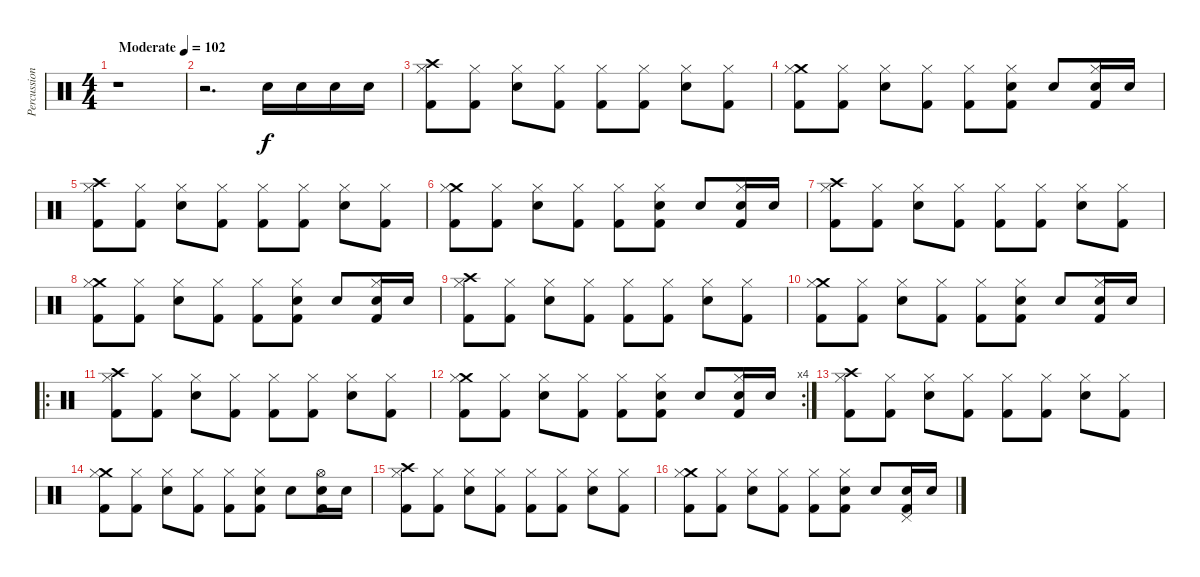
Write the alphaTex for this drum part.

\track ("Percussion" "Percussion") {instrument percussion}
\staff {score}
\articulation defaults
\ts (4 4)
\tempo (102 "Moderate")
\clef neutral
\ks c
r.1{dy f} |
r.2{d} "Snare (hit) 2".16 "Snare (hit) 2".16 "Snare (hit) 2".16 "Snare (hit) 2".16 |
("Crash high (hit)" "Hi-Hat (closed)" "Kick (hit) 2").8 ("Hi-Hat (closed)" "Kick (hit) 2").8 ("Snare (hit) 2" "Hi-Hat (closed)").8 ("Hi-Hat (closed)" "Kick (hit) 2").8 ("Hi-Hat (closed)" "Kick (hit) 2").8 ("Hi-Hat (closed)" "Kick (hit) 2").8 ("Snare (hit) 2" "Hi-Hat (closed)").8 ("Hi-Hat (closed)" "Kick (hit) 2").8 |
("Crash medium (hit)" "Hi-Hat (closed)" "Kick (hit) 2").8 ("Hi-Hat (closed)" "Kick (hit) 2").8 ("Snare (hit) 2" "Hi-Hat (closed)").8 ("Hi-Hat (closed)" "Kick (hit) 2").8 ("Hi-Hat (closed)" "Kick (hit) 2").8 ("Snare (hit) 2" "Hi-Hat (closed)" "Kick (hit) 2").8 "Snare (hit) 2".8 ("Snare (hit) 2" "Hi-Hat (closed)" "Kick (hit) 2").16 "Snare (hit) 2".16 |
("Crash high (hit)" "Hi-Hat (closed)" "Kick (hit) 2").8 ("Hi-Hat (closed)" "Kick (hit) 2").8 ("Snare (hit) 2" "Hi-Hat (closed)").8 ("Hi-Hat (closed)" "Kick (hit) 2").8 ("Hi-Hat (closed)" "Kick (hit) 2").8 ("Hi-Hat (closed)" "Kick (hit) 2").8 ("Snare (hit) 2" "Hi-Hat (closed)").8 ("Hi-Hat (closed)" "Kick (hit) 2").8 |
("Crash medium (hit)" "Hi-Hat (closed)" "Kick (hit) 2").8 ("Hi-Hat (closed)" "Kick (hit) 2").8 ("Snare (hit) 2" "Hi-Hat (closed)").8 ("Hi-Hat (closed)" "Kick (hit) 2").8 ("Hi-Hat (closed)" "Kick (hit) 2").8 ("Snare (hit) 2" "Hi-Hat (closed)" "Kick (hit) 2").8 "Snare (hit) 2".8 ("Snare (hit) 2" "Hi-Hat (closed)" "Kick (hit) 2").16 "Snare (hit) 2".16 |
("Crash high (hit)" "Hi-Hat (closed)" "Kick (hit) 2").8 ("Hi-Hat (closed)" "Kick (hit) 2").8 ("Snare (hit) 2" "Hi-Hat (closed)").8 ("Hi-Hat (closed)" "Kick (hit) 2").8 ("Hi-Hat (closed)" "Kick (hit) 2").8 ("Hi-Hat (closed)" "Kick (hit) 2").8 ("Snare (hit) 2" "Hi-Hat (closed)").8 ("Hi-Hat (closed)" "Kick (hit) 2").8 |
("Crash medium (hit)" "Hi-Hat (closed)" "Kick (hit) 2").8 ("Hi-Hat (closed)" "Kick (hit) 2").8 ("Snare (hit) 2" "Hi-Hat (closed)").8 ("Hi-Hat (closed)" "Kick (hit) 2").8 ("Hi-Hat (closed)" "Kick (hit) 2").8 ("Snare (hit) 2" "Hi-Hat (closed)" "Kick (hit) 2").8 "Snare (hit) 2".8 ("Snare (hit) 2" "Hi-Hat (closed)" "Kick (hit) 2").16 "Snare (hit) 2".16 |
("Crash high (hit)" "Hi-Hat (closed)" "Kick (hit) 2").8 ("Hi-Hat (closed)" "Kick (hit) 2").8 ("Snare (hit) 2" "Hi-Hat (closed)").8 ("Hi-Hat (closed)" "Kick (hit) 2").8 ("Hi-Hat (closed)" "Kick (hit) 2").8 ("Hi-Hat (closed)" "Kick (hit) 2").8 ("Snare (hit) 2" "Hi-Hat (closed)").8 ("Hi-Hat (closed)" "Kick (hit) 2").8 |
("Crash medium (hit)" "Hi-Hat (closed)" "Kick (hit) 2").8 ("Hi-Hat (closed)" "Kick (hit) 2").8 ("Snare (hit) 2" "Hi-Hat (closed)").8 ("Hi-Hat (closed)" "Kick (hit) 2").8 ("Hi-Hat (closed)" "Kick (hit) 2").8 ("Snare (hit) 2" "Hi-Hat (closed)" "Kick (hit) 2").8 "Snare (hit) 2".8 ("Snare (hit) 2" "Hi-Hat (closed)" "Kick (hit) 2").16 "Snare (hit) 2".16 |
\ro
("Crash high (hit)" "Hi-Hat (closed)" "Kick (hit) 2").8 ("Hi-Hat (closed)" "Kick (hit) 2").8 ("Snare (hit) 2" "Hi-Hat (closed)").8 ("Hi-Hat (closed)" "Kick (hit) 2").8 ("Hi-Hat (closed)" "Kick (hit) 2").8 ("Hi-Hat (closed)" "Kick (hit) 2").8 ("Snare (hit) 2" "Hi-Hat (closed)").8 ("Hi-Hat (closed)" "Kick (hit) 2").8 |
\rc 4
("Crash medium (hit)" "Hi-Hat (closed)" "Kick (hit) 2").8 ("Hi-Hat (closed)" "Kick (hit) 2").8 ("Snare (hit) 2" "Hi-Hat (closed)").8 ("Hi-Hat (closed)" "Kick (hit) 2").8 ("Hi-Hat (closed)" "Kick (hit) 2").8 ("Snare (hit) 2" "Hi-Hat (closed)" "Kick (hit) 2").8 "Snare (hit) 2".8 ("Snare (hit) 2" "Hi-Hat (closed)" "Kick (hit) 2").16 "Snare (hit) 2".16 |
("Crash high (hit)" "Hi-Hat (closed)" "Kick (hit) 2").8 ("Hi-Hat (closed)" "Kick (hit) 2").8 ("Snare (hit) 2" "Hi-Hat (closed)").8 ("Hi-Hat (closed)" "Kick (hit) 2").8 ("Hi-Hat (closed)" "Kick (hit) 2").8 ("Hi-Hat (closed)" "Kick (hit) 2").8 ("Snare (hit) 2" "Hi-Hat (closed)").8 ("Hi-Hat (closed)" "Kick (hit) 2").8 |
("Crash medium (hit)" "Hi-Hat (closed)" "Kick (hit) 2").8 ("Hi-Hat (closed)" "Kick (hit) 2").8 ("Snare (hit) 2" "Hi-Hat (closed)").8 ("Hi-Hat (closed)" "Kick (hit) 2").8 ("Hi-Hat (closed)" "Kick (hit) 2").8 ("Snare (hit) 2" "Hi-Hat (closed)" "Kick (hit) 2").8 "Snare (hit) 2".8 ("Snare (hit) 2" "Hi-Hat (open)" "Kick (hit) 2").16 "Snare (hit) 2".16 |
("Crash high (hit)" "Hi-Hat (closed)" "Kick (hit) 2").8 ("Hi-Hat (closed)" "Kick (hit) 2").8 ("Snare (hit) 2" "Hi-Hat (closed)").8 ("Hi-Hat (closed)" "Kick (hit) 2").8 ("Hi-Hat (closed)" "Kick (hit) 2").8 ("Hi-Hat (closed)" "Kick (hit) 2").8 ("Snare (hit) 2" "Hi-Hat (closed)").8 ("Hi-Hat (closed)" "Kick (hit) 2").8 |
("Crash medium (hit)" "Hi-Hat (closed)" "Kick (hit) 2").8 ("Hi-Hat (closed)" "Kick (hit) 2").8 ("Snare (hit) 2" "Hi-Hat (closed)").8 ("Hi-Hat (closed)" "Kick (hit) 2").8 ("Hi-Hat (closed)" "Kick (hit) 2").8 ("Snare (hit) 2" "Hi-Hat (closed)" "Kick (hit) 2").8 "Snare (hit) 2".8 ("Snare (hit) 2" "Pedal Hi-Hat (hit)" "Kick (hit) 2").16 "Snare (hit) 2".16
